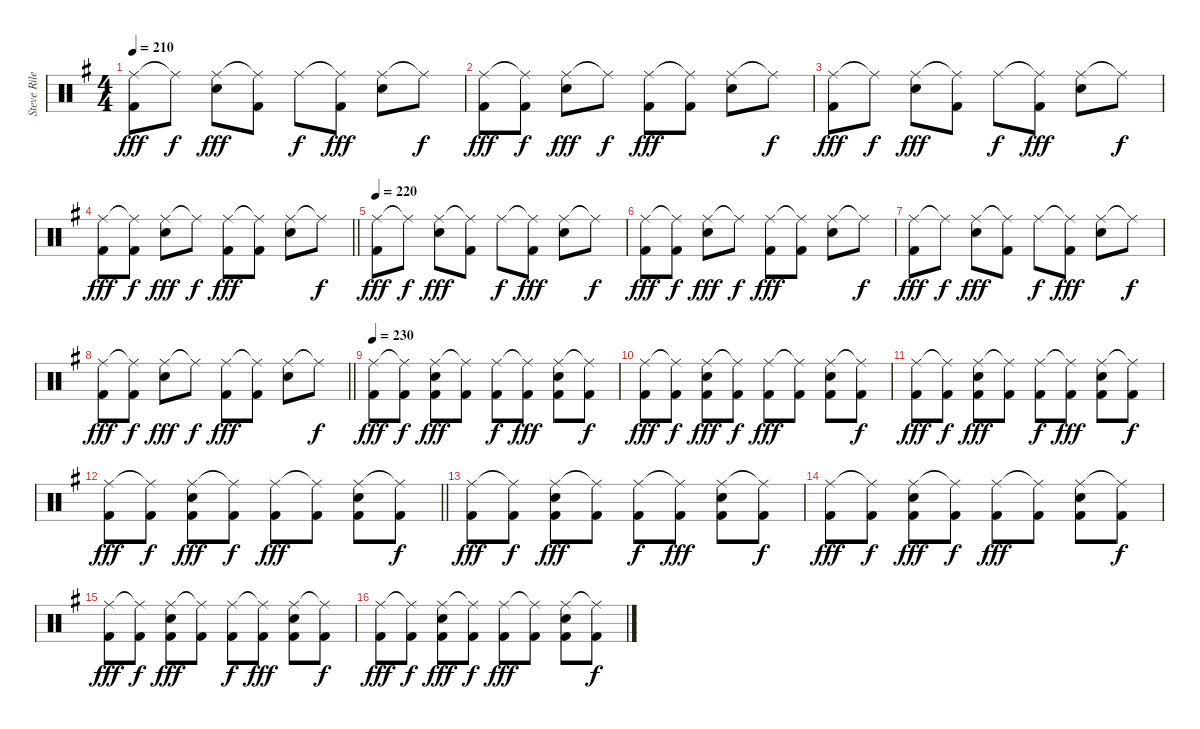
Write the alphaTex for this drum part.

\track ("Steve Riley - Drums" "Steve Rile") {instrument percussion}
\staff {score}
\articulation defaults
\ts (4 4)
\tempo 210
\clef neutral
\ks g
("Ride (middle)" "Kick (hit) 2").8{dy fff} "Ride (middle)"{t}.8{dy f} ("Ride (middle)" "Electric Snare (hit)").8{dy fff} ("Ride (middle)"{t} "Kick (hit) 2").8 "Ride (middle)".8{dy f} ("Ride (middle)"{t} "Kick (hit) 2").8{dy fff} ("Ride (middle)" "Electric Snare (hit)").8 "Ride (middle)"{t}.8{dy f} |
("Ride (middle)" "Kick (hit) 2").8{dy fff} ("Ride (middle)"{t} "Kick (hit) 2").8{dy f} ("Ride (middle)" "Electric Snare (hit)").8{dy fff} "Ride (middle)"{t}.8{dy f} ("Ride (middle)" "Kick (hit) 2").8{dy fff} ("Ride (middle)"{t} "Kick (hit) 2").8 ("Ride (middle)" "Electric Snare (hit)").8 "Ride (middle)"{t}.8{dy f} |
("Ride (middle)" "Kick (hit) 2").8{dy fff} "Ride (middle)"{t}.8{dy f} ("Ride (middle)" "Electric Snare (hit)").8{dy fff} ("Ride (middle)"{t} "Kick (hit) 2").8 "Ride (middle)".8{dy f} ("Ride (middle)"{t} "Kick (hit) 2").8{dy fff} ("Ride (middle)" "Electric Snare (hit)").8 "Ride (middle)"{t}.8{dy f} |
\barLineRight lightlight
("Ride (middle)" "Kick (hit) 2").8{dy fff} ("Ride (middle)"{t} "Kick (hit) 2").8{dy f} ("Ride (middle)" "Electric Snare (hit)").8{dy fff} "Ride (middle)"{t}.8{dy f} ("Ride (middle)" "Kick (hit) 2").8{dy fff} ("Ride (middle)"{t} "Kick (hit) 2").8 ("Ride (middle)" "Electric Snare (hit)").8 "Ride (middle)"{t}.8{dy f} |
\tempo 220
("Ride (middle)" "Kick (hit) 2").8{dy fff} "Ride (middle)"{t}.8{dy f} ("Ride (middle)" "Electric Snare (hit)").8{dy fff} ("Ride (middle)"{t} "Kick (hit) 2").8 "Ride (middle)".8{dy f} ("Ride (middle)"{t} "Kick (hit) 2").8{dy fff} ("Ride (middle)" "Electric Snare (hit)").8 "Ride (middle)"{t}.8{dy f} |
("Ride (middle)" "Kick (hit) 2").8{dy fff} ("Ride (middle)"{t} "Kick (hit) 2").8{dy f} ("Ride (middle)" "Electric Snare (hit)").8{dy fff} "Ride (middle)"{t}.8{dy f} ("Ride (middle)" "Kick (hit) 2").8{dy fff} ("Ride (middle)"{t} "Kick (hit) 2").8 ("Ride (middle)" "Electric Snare (hit)").8 "Ride (middle)"{t}.8{dy f} |
("Ride (middle)" "Kick (hit) 2").8{dy fff} "Ride (middle)"{t}.8{dy f} ("Ride (middle)" "Electric Snare (hit)").8{dy fff} ("Ride (middle)"{t} "Kick (hit) 2").8 "Ride (middle)".8{dy f} ("Ride (middle)"{t} "Kick (hit) 2").8{dy fff} ("Ride (middle)" "Electric Snare (hit)").8 "Ride (middle)"{t}.8{dy f} |
\barLineRight lightlight
("Ride (middle)" "Kick (hit) 2").8{dy fff} ("Ride (middle)"{t} "Kick (hit) 2").8{dy f} ("Ride (middle)" "Electric Snare (hit)").8{dy fff} "Ride (middle)"{t}.8{dy f} ("Ride (middle)" "Kick (hit) 2").8{dy fff} ("Ride (middle)"{t} "Kick (hit) 2").8 ("Ride (middle)" "Electric Snare (hit)").8 "Ride (middle)"{t}.8{dy f} |
\tempo 230
("Ride (middle)" "Kick (hit) 2").8{dy fff} ("Ride (middle)"{t} "Kick (hit) 2").8{dy f} ("Ride (middle)" "Electric Snare (hit)" "Kick (hit) 2").8{dy fff} ("Ride (middle)"{t} "Kick (hit) 2").8 ("Ride (middle)" "Kick (hit) 2").8{dy f} ("Ride (middle)"{t} "Kick (hit) 2").8{dy fff} ("Ride (middle)" "Electric Snare (hit)" "Kick (hit) 2").8 ("Ride (middle)"{t} "Kick (hit) 2").8{dy f} |
("Ride (middle)" "Kick (hit) 2").8{dy fff} ("Ride (middle)"{t} "Kick (hit) 2").8{dy f} ("Ride (middle)" "Electric Snare (hit)" "Kick (hit) 2").8{dy fff} ("Ride (middle)"{t} "Kick (hit) 2").8{dy f} ("Ride (middle)" "Kick (hit) 2").8{dy fff} ("Ride (middle)"{t} "Kick (hit) 2").8 ("Ride (middle)" "Electric Snare (hit)" "Kick (hit) 2").8 ("Ride (middle)"{t} "Kick (hit) 2").8{dy f} |
("Ride (middle)" "Kick (hit) 2").8{dy fff} ("Ride (middle)"{t} "Kick (hit) 2").8{dy f} ("Ride (middle)" "Electric Snare (hit)" "Kick (hit) 2").8{dy fff} ("Ride (middle)"{t} "Kick (hit) 2").8 ("Ride (middle)" "Kick (hit) 2").8{dy f} ("Ride (middle)"{t} "Kick (hit) 2").8{dy fff} ("Ride (middle)" "Electric Snare (hit)" "Kick (hit) 2").8 ("Ride (middle)"{t} "Kick (hit) 2").8{dy f} |
\barLineRight lightlight
("Ride (middle)" "Kick (hit) 2").8{dy fff} ("Ride (middle)"{t} "Kick (hit) 2").8{dy f} ("Ride (middle)" "Electric Snare (hit)" "Kick (hit) 2").8{dy fff} ("Ride (middle)"{t} "Kick (hit) 2").8{dy f} ("Ride (middle)" "Kick (hit) 2").8{dy fff} ("Ride (middle)"{t} "Kick (hit) 2").8 ("Ride (middle)" "Electric Snare (hit)" "Kick (hit) 2").8 ("Ride (middle)"{t} "Kick (hit) 2").8{dy f} |
("Ride (middle)" "Kick (hit) 2").8{dy fff} ("Ride (middle)"{t} "Kick (hit) 2").8{dy f} ("Ride (middle)" "Electric Snare (hit)" "Kick (hit) 2").8{dy fff} ("Ride (middle)"{t} "Kick (hit) 2").8 ("Ride (middle)" "Kick (hit) 2").8{dy f} ("Ride (middle)"{t} "Kick (hit) 2").8{dy fff} ("Ride (middle)" "Electric Snare (hit)" "Kick (hit) 2").8 ("Ride (middle)"{t} "Kick (hit) 2").8{dy f} |
("Ride (middle)" "Kick (hit) 2").8{dy fff} ("Ride (middle)"{t} "Kick (hit) 2").8{dy f} ("Ride (middle)" "Electric Snare (hit)" "Kick (hit) 2").8{dy fff} ("Ride (middle)"{t} "Kick (hit) 2").8{dy f} ("Ride (middle)" "Kick (hit) 2").8{dy fff} ("Ride (middle)"{t} "Kick (hit) 2").8 ("Ride (middle)" "Electric Snare (hit)" "Kick (hit) 2").8 ("Ride (middle)"{t} "Kick (hit) 2").8{dy f} |
("Ride (middle)" "Kick (hit) 2").8{dy fff} ("Ride (middle)"{t} "Kick (hit) 2").8{dy f} ("Ride (middle)" "Electric Snare (hit)" "Kick (hit) 2").8{dy fff} ("Ride (middle)"{t} "Kick (hit) 2").8 ("Ride (middle)" "Kick (hit) 2").8{dy f} ("Ride (middle)"{t} "Kick (hit) 2").8{dy fff} ("Ride (middle)" "Electric Snare (hit)" "Kick (hit) 2").8 ("Ride (middle)"{t} "Kick (hit) 2").8{dy f} |
("Ride (middle)" "Kick (hit) 2").8{dy fff} ("Ride (middle)"{t} "Kick (hit) 2").8{dy f} ("Ride (middle)" "Electric Snare (hit)" "Kick (hit) 2").8{dy fff} ("Ride (middle)"{t} "Kick (hit) 2").8{dy f} ("Ride (middle)" "Kick (hit) 2").8{dy fff} ("Ride (middle)"{t} "Kick (hit) 2").8 ("Ride (middle)" "Electric Snare (hit)" "Kick (hit) 2").8 ("Ride (middle)"{t} "Kick (hit) 2").8{dy f}
